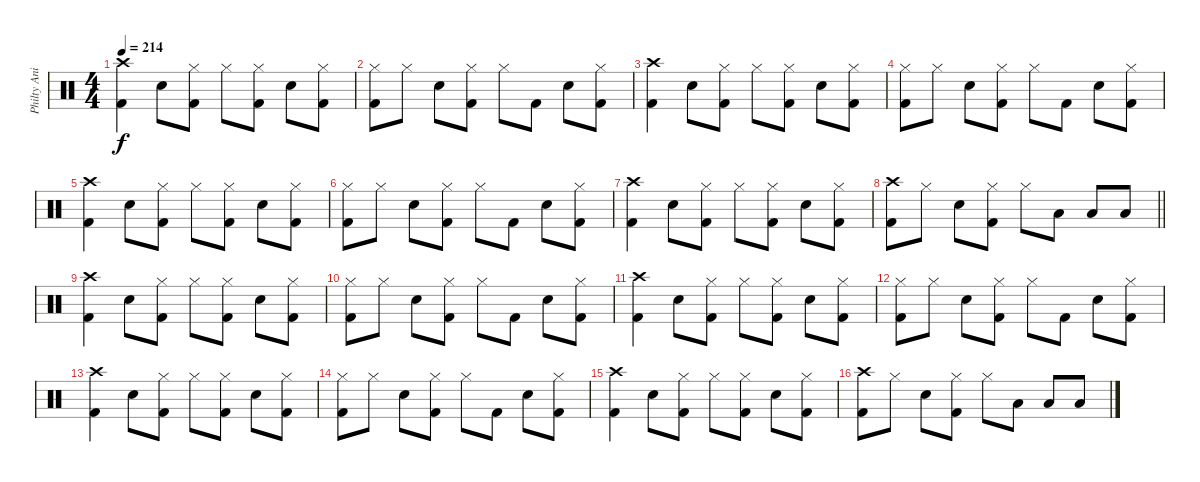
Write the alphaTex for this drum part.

\track ("Philty Animal" "Philty Ani") {instrument percussion}
\staff {score}
\articulation defaults
\ts (4 4)
\tempo 214
\clef neutral
\ks c
("Kick (hit) 2" "Crash high (hit)").4{dy f} "Snare (hit) 2".8 ("Kick (hit) 2" "Hi-Hat (closed)").8 "Hi-Hat (closed)".8 ("Kick (hit) 2" "Hi-Hat (closed)").8 "Snare (hit) 2".8 ("Kick (hit) 2" "Hi-Hat (closed)").8 |
("Kick (hit) 2" "Hi-Hat (closed)").8 "Hi-Hat (closed)".8 "Snare (hit) 2".8 ("Hi-Hat (closed)" "Kick (hit) 2").8 "Hi-Hat (closed)".8 "Kick (hit) 2".8 "Snare (hit) 2".8 ("Kick (hit) 2" "Hi-Hat (closed)").8 |
("Kick (hit) 2" "Crash high (hit)").4 "Snare (hit) 2".8 ("Kick (hit) 2" "Hi-Hat (closed)").8 "Hi-Hat (closed)".8 ("Kick (hit) 2" "Hi-Hat (closed)").8 "Snare (hit) 2".8 ("Kick (hit) 2" "Hi-Hat (closed)").8 |
("Kick (hit) 2" "Hi-Hat (closed)").8 "Hi-Hat (closed)".8 "Snare (hit) 2".8 ("Hi-Hat (closed)" "Kick (hit) 2").8 "Hi-Hat (closed)".8 "Kick (hit) 2".8 "Snare (hit) 2".8 ("Kick (hit) 2" "Hi-Hat (closed)").8 |
("Kick (hit) 2" "Crash high (hit)").4 "Snare (hit) 2".8 ("Kick (hit) 2" "Hi-Hat (closed)").8 "Hi-Hat (closed)".8 ("Kick (hit) 2" "Hi-Hat (closed)").8 "Snare (hit) 2".8 ("Kick (hit) 2" "Hi-Hat (closed)").8 |
("Kick (hit) 2" "Hi-Hat (closed)").8 "Hi-Hat (closed)".8 "Snare (hit) 2".8 ("Hi-Hat (closed)" "Kick (hit) 2").8 "Hi-Hat (closed)".8 "Kick (hit) 2".8 "Snare (hit) 2".8 ("Kick (hit) 2" "Hi-Hat (closed)").8 |
("Kick (hit) 2" "Crash high (hit)").4 "Snare (hit) 2".8 ("Kick (hit) 2" "Hi-Hat (closed)").8 "Hi-Hat (closed)".8 ("Kick (hit) 2" "Hi-Hat (closed)").8 "Snare (hit) 2".8 ("Kick (hit) 2" "Hi-Hat (closed)").8 |
\barLineRight lightlight
("Crash high (hit)" "Kick (hit) 2").8 "Hi-Hat (closed)".8 "Snare (hit) 2".8 ("Hi-Hat (closed)" "Kick (hit) 2").8 "Hi-Hat (closed)".8 "Low Tom (hit)".8 "Low Tom (hit)".8 "Low Tom (hit)".8 |
("Kick (hit) 2" "Crash high (hit)").4 "Snare (hit) 2".8 ("Kick (hit) 2" "Hi-Hat (closed)").8 "Hi-Hat (closed)".8 ("Kick (hit) 2" "Hi-Hat (closed)").8 "Snare (hit) 2".8 ("Kick (hit) 2" "Hi-Hat (closed)").8 |
("Kick (hit) 2" "Hi-Hat (closed)").8 "Hi-Hat (closed)".8 "Snare (hit) 2".8 ("Hi-Hat (closed)" "Kick (hit) 2").8 "Hi-Hat (closed)".8 "Kick (hit) 2".8 "Snare (hit) 2".8 ("Kick (hit) 2" "Hi-Hat (closed)").8 |
("Kick (hit) 2" "Crash high (hit)").4 "Snare (hit) 2".8 ("Kick (hit) 2" "Hi-Hat (closed)").8 "Hi-Hat (closed)".8 ("Kick (hit) 2" "Hi-Hat (closed)").8 "Snare (hit) 2".8 ("Kick (hit) 2" "Hi-Hat (closed)").8 |
("Kick (hit) 2" "Hi-Hat (closed)").8 "Hi-Hat (closed)".8 "Snare (hit) 2".8 ("Hi-Hat (closed)" "Kick (hit) 2").8 "Hi-Hat (closed)".8 "Kick (hit) 2".8 "Snare (hit) 2".8 ("Kick (hit) 2" "Hi-Hat (closed)").8 |
("Kick (hit) 2" "Crash high (hit)").4 "Snare (hit) 2".8 ("Kick (hit) 2" "Hi-Hat (closed)").8 "Hi-Hat (closed)".8 ("Kick (hit) 2" "Hi-Hat (closed)").8 "Snare (hit) 2".8 ("Kick (hit) 2" "Hi-Hat (closed)").8 |
("Kick (hit) 2" "Hi-Hat (closed)").8 "Hi-Hat (closed)".8 "Snare (hit) 2".8 ("Hi-Hat (closed)" "Kick (hit) 2").8 "Hi-Hat (closed)".8 "Kick (hit) 2".8 "Snare (hit) 2".8 ("Kick (hit) 2" "Hi-Hat (closed)").8 |
("Kick (hit) 2" "Crash high (hit)").4 "Snare (hit) 2".8 ("Kick (hit) 2" "Hi-Hat (closed)").8 "Hi-Hat (closed)".8 ("Kick (hit) 2" "Hi-Hat (closed)").8 "Snare (hit) 2".8 ("Kick (hit) 2" "Hi-Hat (closed)").8 |
("Crash high (hit)" "Kick (hit) 2").8 "Hi-Hat (closed)".8 "Snare (hit) 2".8 ("Hi-Hat (closed)" "Kick (hit) 2").8 "Hi-Hat (closed)".8 "Low Tom (hit)".8 "Low Tom (hit)".8 "Low Tom (hit)".8
